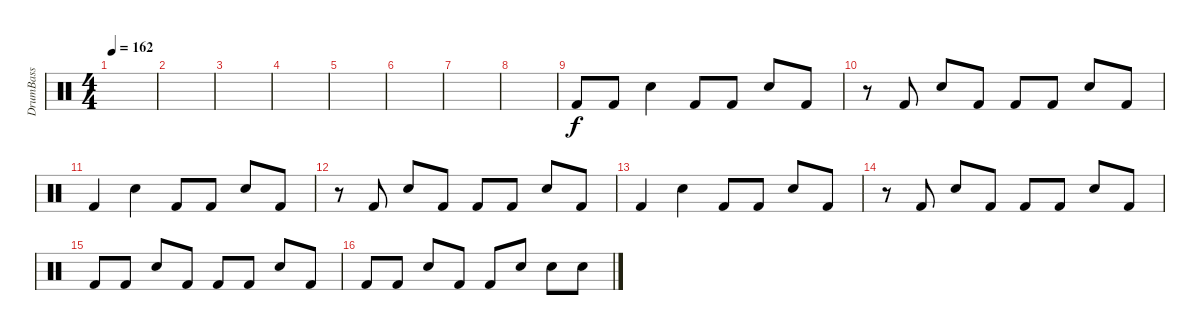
\track ("DrumBass" "DrumBass") {instrument percussion}
\staff {score}
\articulation defaults
\ts (4 4)
\tempo 162
\clef neutral
\ks c
|
|
|
|
|
|
|
|
"Kick (hit) 2".8 "Kick (hit) 2".8 "Snare (hit) 2".4 "Kick (hit) 2".8 "Kick (hit) 2".8 "Snare (hit) 2".8 "Kick (hit) 2".8 |
r.8 "Kick (hit) 2".8 "Snare (hit) 2".8 "Kick (hit) 2".8 "Kick (hit) 2".8 "Kick (hit) 2".8 "Snare (hit) 2".8 "Kick (hit) 2".8 |
"Kick (hit) 2".4 "Snare (hit) 2".4 "Kick (hit) 2".8 "Kick (hit) 2".8 "Snare (hit) 2".8 "Kick (hit) 2".8 |
r.8 "Kick (hit) 2".8 "Snare (hit) 2".8 "Kick (hit) 2".8 "Kick (hit) 2".8 "Kick (hit) 2".8 "Snare (hit) 2".8 "Kick (hit) 2".8 |
"Kick (hit) 2".4 "Snare (hit) 2".4 "Kick (hit) 2".8 "Kick (hit) 2".8 "Snare (hit) 2".8 "Kick (hit) 2".8 |
r.8 "Kick (hit) 2".8 "Snare (hit) 2".8 "Kick (hit) 2".8 "Kick (hit) 2".8 "Kick (hit) 2".8 "Snare (hit) 2".8 "Kick (hit) 2".8 |
"Kick (hit) 2".8 "Kick (hit) 2".8 "Snare (hit) 2".8 "Kick (hit) 2".8 "Kick (hit) 2".8 "Kick (hit) 2".8 "Snare (hit) 2".8 "Kick (hit) 2".8 |
"Kick (hit) 2".8 "Kick (hit) 2".8 "Snare (hit) 2".8 "Kick (hit) 2".8 "Kick (hit) 2".8 "Snare (hit) 2"{tr (38 16)}.8 "Snare (hit) 2"{tr (38 16)}.8 "Snare (hit) 2"{tr (38 16)}.8
